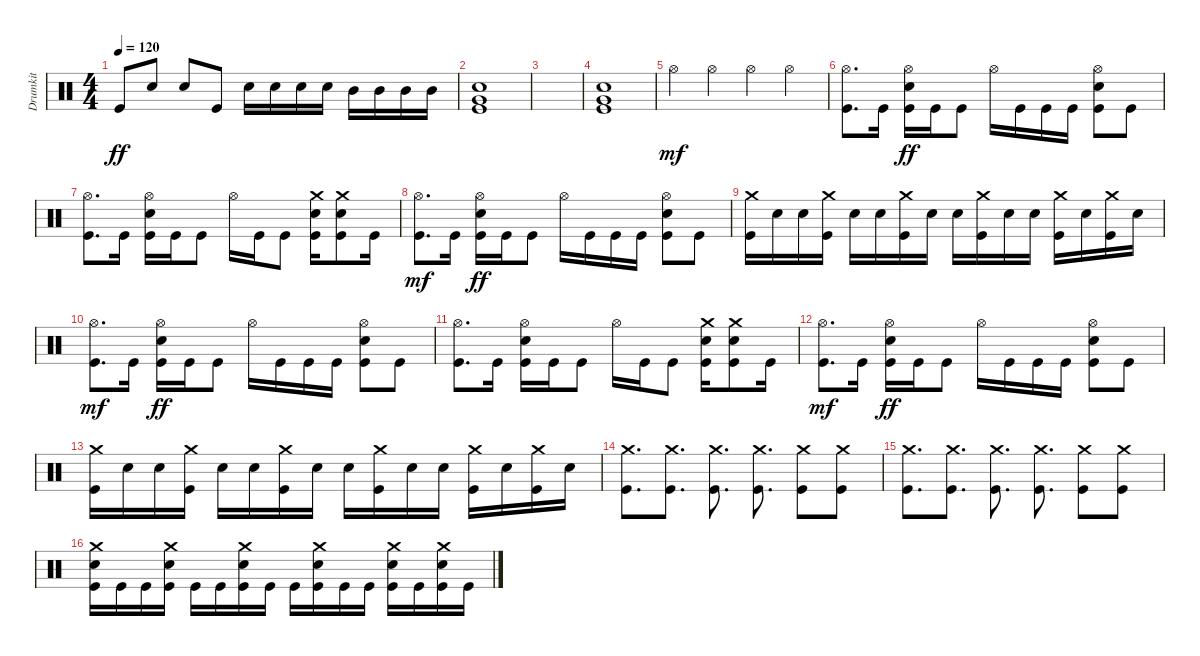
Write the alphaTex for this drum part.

\track ("Drumkit" "Drumkit") {instrument percussion}
\staff {score}
\articulation defaults
\ts (4 4)
\tempo 120
\clef neutral
\ks c "Kick (hit)".8{dy ff} "Snare (hit) 2".8 "Snare (hit) 2".8 "Kick (hit)".8 "Snare (hit) 2".16 "Snare (hit) 2".16 "Snare (hit) 2".16 "Snare (hit) 2".16 "Mid Tom (hit)".16 "Mid Tom (hit)".16 "Mid Tom (hit)".16 "Mid Tom (hit)".16
|
("Kick (hit)" "Snare (hit) 2" "Very Low Tom (hit)").1 |
|
("Kick (hit)" "Snare (hit) 2" "Very Low Tom (hit)").1 |
"Hi-Hat (open)".4{dy mf} "Hi-Hat (open)".4 "Hi-Hat (open)".4 "Hi-Hat (open)".4 |
("Kick (hit)" "Hi-Hat (open)").8{d} "Kick (hit)".16 ("Kick (hit)" "Snare (hit) 2" "Hi-Hat (open)").16{dy ff} "Kick (hit)".16 "Kick (hit)".8 "Hi-Hat (open)".16 "Kick (hit)".16 "Kick (hit)".16 "Kick (hit)".16 ("Kick (hit)" "Snare (hit) 2" "Hi-Hat (open)").8 "Kick (hit)".8 |
("Kick (hit)" "Hi-Hat (open)").8{d} "Kick (hit)".16 ("Kick (hit)" "Snare (hit) 2" "Hi-Hat (open)").16 "Kick (hit)".16 "Kick (hit)".8 "Hi-Hat (open)".16 "Kick (hit)".16 "Kick (hit)".8 ("Kick (hit)" "Snare (hit) 2" "Crash medium (hit)").16 ("Kick (hit)" "Snare (hit) 2" "Crash medium (hit)").8 "Kick (hit)".16 |
("Kick (hit)" "Hi-Hat (open)").8{d dy mf} "Kick (hit)".16 ("Kick (hit)" "Snare (hit) 2" "Hi-Hat (open)").16{dy ff} "Kick (hit)".16 "Kick (hit)".8 "Hi-Hat (open)".16 "Kick (hit)".16 "Kick (hit)".16 "Kick (hit)".16 ("Kick (hit)" "Snare (hit) 2" "Hi-Hat (open)").8 "Kick (hit)".8 |
("Kick (hit)" "Crash medium (hit)").16 "Snare (hit) 2".16 "Snare (hit) 2".16 ("Kick (hit)" "Crash medium (hit)").16 "Snare (hit) 2".16 "Snare (hit) 2".16 ("Kick (hit)" "Crash medium (hit)").16 "Snare (hit) 2".16 "Snare (hit) 2".16 ("Kick (hit)" "Crash medium (hit)").16 "Snare (hit) 2".16 "Snare (hit) 2".16 ("Kick (hit)" "Crash medium (hit)").16 "Snare (hit) 2".16 ("Kick (hit)" "Crash medium (hit)").16 "Snare (hit) 2".16 |
("Kick (hit)" "Hi-Hat (open)").8{d dy mf} "Kick (hit)".16 ("Kick (hit)" "Snare (hit) 2" "Hi-Hat (open)").16{dy ff} "Kick (hit)".16 "Kick (hit)".8 "Hi-Hat (open)".16 "Kick (hit)".16 "Kick (hit)".16 "Kick (hit)".16 ("Kick (hit)" "Snare (hit) 2" "Hi-Hat (open)").8 "Kick (hit)".8 |
("Kick (hit)" "Hi-Hat (open)").8{d} "Kick (hit)".16 ("Kick (hit)" "Snare (hit) 2" "Hi-Hat (open)").16 "Kick (hit)".16 "Kick (hit)".8 "Hi-Hat (open)".16 "Kick (hit)".16 "Kick (hit)".8 ("Kick (hit)" "Snare (hit) 2" "Crash medium (hit)").16 ("Kick (hit)" "Snare (hit) 2" "Crash medium (hit)").8 "Kick (hit)".16 |
("Kick (hit)" "Hi-Hat (open)").8{d dy mf} "Kick (hit)".16 ("Kick (hit)" "Snare (hit) 2" "Hi-Hat (open)").16{dy ff} "Kick (hit)".16 "Kick (hit)".8 "Hi-Hat (open)".16 "Kick (hit)".16 "Kick (hit)".16 "Kick (hit)".16 ("Kick (hit)" "Snare (hit) 2" "Hi-Hat (open)").8 "Kick (hit)".8 |
("Kick (hit)" "Crash medium (hit)").16 "Snare (hit) 2".16 "Snare (hit) 2".16 ("Kick (hit)" "Crash medium (hit)").16 "Snare (hit) 2".16 "Snare (hit) 2".16 ("Kick (hit)" "Crash medium (hit)").16 "Snare (hit) 2".16 "Snare (hit) 2".16 ("Kick (hit)" "Crash medium (hit)").16 "Snare (hit) 2".16 "Snare (hit) 2".16 ("Kick (hit)" "Crash medium (hit)").16 "Snare (hit) 2".16 ("Kick (hit)" "Crash medium (hit)").16 "Snare (hit) 2".16 |
("Kick (hit)" "Crash medium (hit)").8{d} ("Crash medium (hit)" "Kick (hit)").8{d} ("Crash medium (hit)" "Kick (hit)").8{d} ("Crash medium (hit)" "Kick (hit)").8{d} ("Crash medium (hit)" "Kick (hit)").8 ("Crash medium (hit)" "Kick (hit)").8 |
("Kick (hit)" "Crash medium (hit)").8{d} ("Crash medium (hit)" "Kick (hit)").8{d} ("Crash medium (hit)" "Kick (hit)").8{d} ("Crash medium (hit)" "Kick (hit)").8{d} ("Crash medium (hit)" "Kick (hit)").8 ("Crash medium (hit)" "Kick (hit)").8 |
("Kick (hit)" "Crash medium (hit)" "Snare (hit) 2").16 "Kick (hit)".16 "Kick (hit)".16 ("Kick (hit)" "Crash medium (hit)" "Snare (hit) 2").16 "Kick (hit)".16 "Kick (hit)".16 ("Kick (hit)" "Crash medium (hit)" "Snare (hit) 2").16 "Kick (hit)".16 "Kick (hit)".16 ("Kick (hit)" "Crash medium (hit)" "Snare (hit) 2").16 "Kick (hit)".16 "Kick (hit)".16 ("Kick (hit)" "Crash medium (hit)" "Snare (hit) 2").16 "Kick (hit)".16 ("Kick (hit)" "Crash medium (hit)" "Snare (hit) 2").16 "Kick (hit)".16
